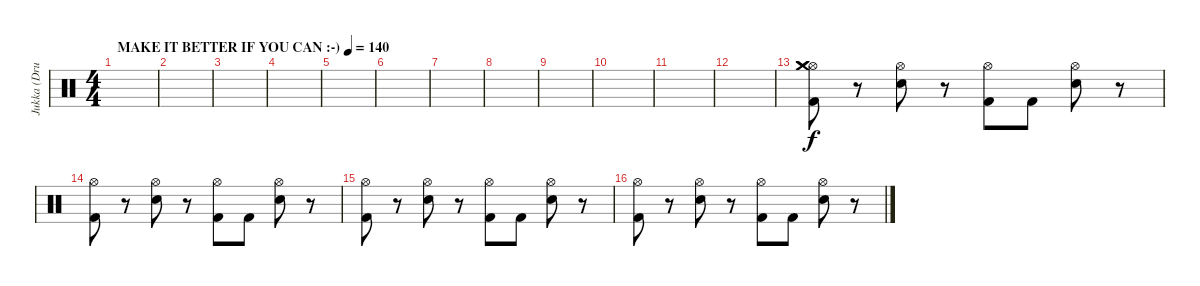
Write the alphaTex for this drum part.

\track ("Jukka (Drums)" "Jukka (Dru") {instrument percussion}
\staff {score}
\articulation defaults
\ts (4 4)
\tempo (140 "MAKE IT BETTER IF YOU CAN :-)")
\clef neutral
\ks c
|
|
|
|
|
|
|
|
|
|
|
|
("Hi-Hat (open)" "Crash medium (hit)" "Crash medium (hit)" "Kick (hit) 2").8 r.8 ("Hi-Hat (open)" "Snare (hit) 2").8 r.8 ("Hi-Hat (open)" "Kick (hit) 2").8 "Kick (hit) 2".8 ("Hi-Hat (open)" "Snare (hit) 2").8 r.8 |
("Hi-Hat (open)" "Kick (hit) 2").8 r.8 ("Hi-Hat (open)" "Snare (hit) 2").8 r.8 ("Hi-Hat (open)" "Kick (hit) 2").8 "Kick (hit) 2".8 ("Hi-Hat (open)" "Snare (hit) 2").8 r.8 |
("Hi-Hat (open)" "Kick (hit) 2").8 r.8 ("Hi-Hat (open)" "Snare (hit) 2").8 r.8 ("Hi-Hat (open)" "Kick (hit) 2").8 "Kick (hit) 2".8 ("Hi-Hat (open)" "Snare (hit) 2").8 r.8 |
("Hi-Hat (open)" "Kick (hit) 2").8 r.8 ("Hi-Hat (open)" "Snare (hit) 2").8 r.8 ("Hi-Hat (open)" "Kick (hit) 2").8 "Kick (hit) 2".8 ("Hi-Hat (open)" "Snare (hit) 2").8 r.8
